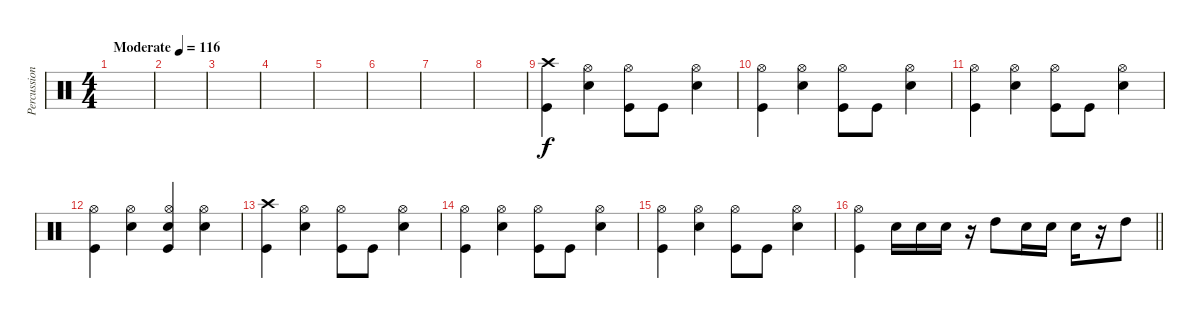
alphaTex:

\track ("Percussions" "Percussion") {instrument percussion}
\staff {score}
\articulation defaults
\ts (4 4)
\tempo (116 "Moderate")
\clef neutral
\ks c
|
|
|
|
|
|
|
|
("Crash high (hit)" "Kick (hit)").4 ("Hi-Hat (open)" "Snare (hit) 2").4 ("Hi-Hat (open)" "Kick (hit)").8 "Kick (hit)".8 ("Hi-Hat (open)" "Snare (hit) 2").4 |
("Hi-Hat (open)" "Kick (hit)").4 ("Hi-Hat (open)" "Snare (hit) 2").4 ("Hi-Hat (open)" "Kick (hit)").8 "Kick (hit)".8 ("Hi-Hat (open)" "Snare (hit) 2").4 |
("Hi-Hat (open)" "Kick (hit)").4 ("Hi-Hat (open)" "Snare (hit) 2").4 ("Hi-Hat (open)" "Kick (hit)").8 "Kick (hit)".8 ("Hi-Hat (open)" "Snare (hit) 2").4 |
("Hi-Hat (open)" "Kick (hit)").4 ("Hi-Hat (open)" "Snare (hit) 2").4 ("Hi-Hat (open)" "Snare (hit) 2" "Kick (hit)").4 ("Hi-Hat (open)" "Snare (hit) 2").4 |
("Crash high (hit)" "Kick (hit)").4 ("Hi-Hat (open)" "Snare (hit) 2").4 ("Hi-Hat (open)" "Kick (hit)").8 "Kick (hit)".8 ("Hi-Hat (open)" "Snare (hit) 2").4 |
("Hi-Hat (open)" "Kick (hit)").4 ("Hi-Hat (open)" "Snare (hit) 2").4 ("Hi-Hat (open)" "Kick (hit)").8 "Kick (hit)".8 ("Hi-Hat (open)" "Snare (hit) 2").4 |
("Hi-Hat (open)" "Kick (hit)").4 ("Hi-Hat (open)" "Snare (hit) 2").4 ("Hi-Hat (open)" "Kick (hit)").8 "Kick (hit)".8 ("Hi-Hat (open)" "Snare (hit) 2").4 |
\barLineRight lightlight
("Hi-Hat (open)" "Kick (hit)").4 "Snare (hit) 2".16 "Snare (hit) 2".16 "Snare (hit) 2".16 r.16 "High Tom (hit)".8 "Snare (hit) 2".16 "Snare (hit) 2".16 "Snare (hit) 2".16 r.16 "High Tom (hit)".8
